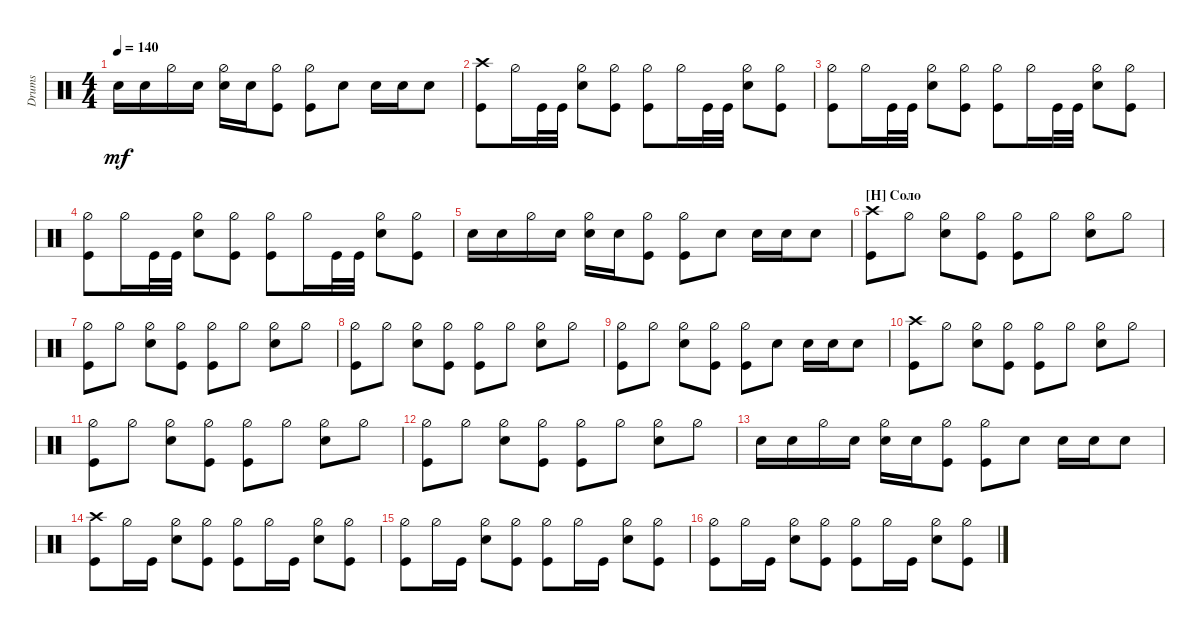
\track ("Drumkit" "Drums") {instrument percussion}
\staff {score}
\articulation defaults
\ts (4 4)
\tempo 140
\clef neutral
\ks c "Snare (hit) 2".16{dy mf} "Snare (hit) 2".16 "Hi-Hat (half)".16 "Snare (hit) 2".16
("Hi-Hat (half)" "Snare (hit) 2").16 "Snare (hit) 2".16 ("Kick (hit)" "Hi-Hat (half)").8 ("Kick (hit)" "Hi-Hat (half)").8 "Snare (hit) 2".8 "Snare (hit) 2".16 "Snare (hit) 2".16 "Snare (hit) 2".8 |
("Kick (hit)" "Crash high (hit)").8 "Hi-Hat (half)".16 "Kick (hit)".32 "Kick (hit)".32 ("Hi-Hat (half)" "Snare (hit) 2").8 ("Kick (hit)" "Hi-Hat (half)").8 ("Kick (hit)" "Hi-Hat (half)").8 "Hi-Hat (half)".16 "Kick (hit)".32 "Kick (hit)".32 ("Hi-Hat (half)" "Snare (hit) 2").8 ("Hi-Hat (half)" "Kick (hit)").8 |
("Kick (hit)" "Hi-Hat (half)").8 "Hi-Hat (half)".16 "Kick (hit)".32 "Kick (hit)".32 ("Hi-Hat (half)" "Snare (hit) 2").8 ("Kick (hit)" "Hi-Hat (half)").8 ("Kick (hit)" "Hi-Hat (half)").8 "Hi-Hat (half)".16 "Kick (hit)".32 "Kick (hit)".32 ("Hi-Hat (half)" "Snare (hit) 2").8 ("Hi-Hat (half)" "Kick (hit)").8 |
("Kick (hit)" "Hi-Hat (half)").8 "Hi-Hat (half)".16 "Kick (hit)".32 "Kick (hit)".32 ("Hi-Hat (half)" "Snare (hit) 2").8 ("Kick (hit)" "Hi-Hat (half)").8 ("Kick (hit)" "Hi-Hat (half)").8 "Hi-Hat (half)".16 "Kick (hit)".32 "Kick (hit)".32 ("Hi-Hat (half)" "Snare (hit) 2").8 ("Hi-Hat (half)" "Kick (hit)").8 |
"Snare (hit) 2".16 "Snare (hit) 2".16 "Hi-Hat (half)".16 "Snare (hit) 2".16 ("Hi-Hat (half)" "Snare (hit) 2").16 "Snare (hit) 2".16 ("Kick (hit)" "Hi-Hat (half)").8 ("Kick (hit)" "Hi-Hat (half)").8 "Snare (hit) 2".8 "Snare (hit) 2".16 "Snare (hit) 2".16 "Snare (hit) 2".8 |
\section ("H" "Соло")
("Kick (hit)" "Crash high (hit)").8 "Hi-Hat (half)".8 ("Snare (hit) 2" "Hi-Hat (half)").8 ("Kick (hit)" "Hi-Hat (half)").8 ("Kick (hit)" "Hi-Hat (half)").8 "Hi-Hat (half)".8 ("Snare (hit) 2" "Hi-Hat (half)").8 "Hi-Hat (half)".8 |
("Kick (hit)" "Hi-Hat (half)").8 "Hi-Hat (half)".8 ("Snare (hit) 2" "Hi-Hat (half)").8 ("Kick (hit)" "Hi-Hat (half)").8 ("Kick (hit)" "Hi-Hat (half)").8 "Hi-Hat (half)".8 ("Snare (hit) 2" "Hi-Hat (half)").8 "Hi-Hat (half)".8 |
("Kick (hit)" "Hi-Hat (half)").8 "Hi-Hat (half)".8 ("Snare (hit) 2" "Hi-Hat (half)").8 ("Kick (hit)" "Hi-Hat (half)").8 ("Kick (hit)" "Hi-Hat (half)").8 "Hi-Hat (half)".8 ("Snare (hit) 2" "Hi-Hat (half)").8 "Hi-Hat (half)".8 |
("Kick (hit)" "Hi-Hat (half)").8 "Hi-Hat (half)".8 ("Snare (hit) 2" "Hi-Hat (half)").8 ("Kick (hit)" "Hi-Hat (half)").8 ("Kick (hit)" "Hi-Hat (half)").8 "Snare (hit) 2".8 "Snare (hit) 2".16 "Snare (hit) 2".16 "Snare (hit) 2".8 |
("Kick (hit)" "Crash high (hit)").8 "Hi-Hat (half)".8 ("Snare (hit) 2" "Hi-Hat (half)").8 ("Kick (hit)" "Hi-Hat (half)").8 ("Kick (hit)" "Hi-Hat (half)").8 "Hi-Hat (half)".8 ("Snare (hit) 2" "Hi-Hat (half)").8 "Hi-Hat (half)".8 |
("Kick (hit)" "Hi-Hat (half)").8 "Hi-Hat (half)".8 ("Snare (hit) 2" "Hi-Hat (half)").8 ("Kick (hit)" "Hi-Hat (half)").8 ("Kick (hit)" "Hi-Hat (half)").8 "Hi-Hat (half)".8 ("Snare (hit) 2" "Hi-Hat (half)").8 "Hi-Hat (half)".8 |
("Kick (hit)" "Hi-Hat (half)").8 "Hi-Hat (half)".8 ("Snare (hit) 2" "Hi-Hat (half)").8 ("Kick (hit)" "Hi-Hat (half)").8 ("Kick (hit)" "Hi-Hat (half)").8 "Hi-Hat (half)".8 ("Snare (hit) 2" "Hi-Hat (half)").8 "Hi-Hat (half)".8 |
"Snare (hit) 2".16 "Snare (hit) 2".16 "Hi-Hat (half)".16 "Snare (hit) 2".16 ("Hi-Hat (half)" "Snare (hit) 2").16 "Snare (hit) 2".16 ("Kick (hit)" "Hi-Hat (half)").8 ("Kick (hit)" "Hi-Hat (half)").8 "Snare (hit) 2".8 "Snare (hit) 2".16 "Snare (hit) 2".16 "Snare (hit) 2".8 |
("Kick (hit)" "Crash high (hit)").8 "Hi-Hat (half)".16 "Kick (hit)".16 ("Snare (hit) 2" "Hi-Hat (half)").8 ("Kick (hit)" "Hi-Hat (half)").8 ("Kick (hit)" "Hi-Hat (half)").8 "Hi-Hat (half)".16 "Kick (hit)".16 ("Hi-Hat (half)" "Snare (hit) 2").8 ("Hi-Hat (half)" "Kick (hit)").8 |
("Kick (hit)" "Hi-Hat (half)").8 "Hi-Hat (half)".16 "Kick (hit)".16 ("Snare (hit) 2" "Hi-Hat (half)").8 ("Kick (hit)" "Hi-Hat (half)").8 ("Kick (hit)" "Hi-Hat (half)").8 "Hi-Hat (half)".16 "Kick (hit)".16 ("Hi-Hat (half)" "Snare (hit) 2").8 ("Hi-Hat (half)" "Kick (hit)").8 |
("Kick (hit)" "Hi-Hat (half)").8 "Hi-Hat (half)".16 "Kick (hit)".16 ("Snare (hit) 2" "Hi-Hat (half)").8 ("Kick (hit)" "Hi-Hat (half)").8 ("Kick (hit)" "Hi-Hat (half)").8 "Hi-Hat (half)".16 "Kick (hit)".16 ("Hi-Hat (half)" "Snare (hit) 2").8 ("Hi-Hat (half)" "Kick (hit)").8
